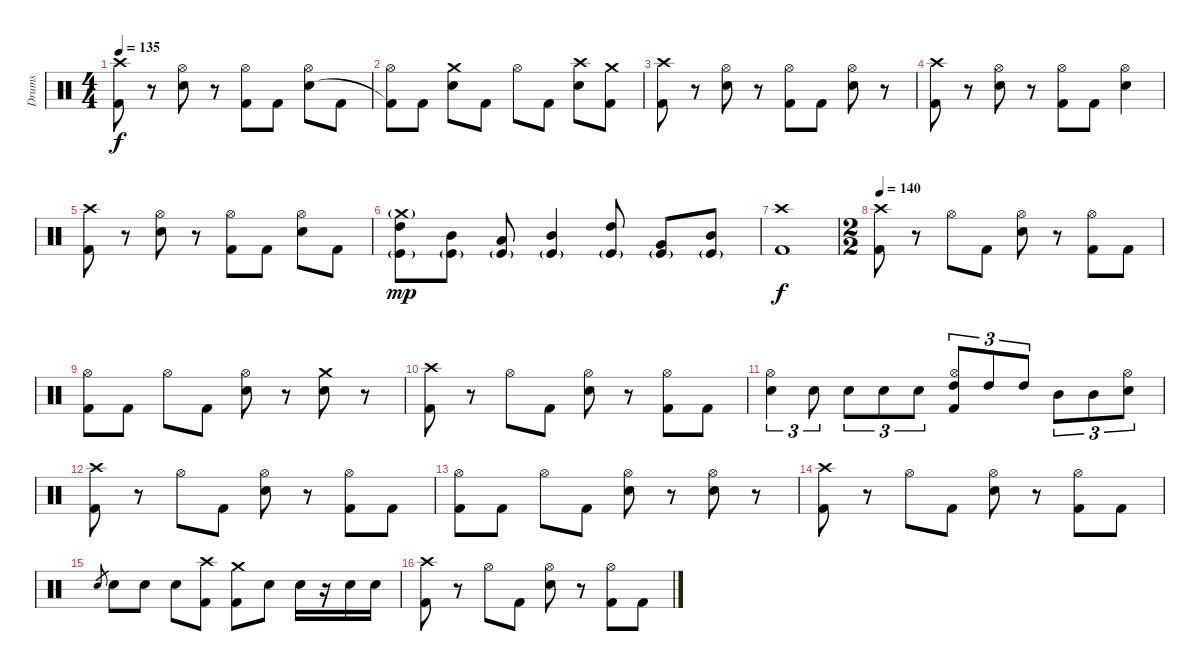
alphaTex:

\track ("Drums" "Drums") {instrument percussion}
\staff {score}
\articulation defaults
\ts (4 4)
\tempo 135
\clef neutral
\ks c
("Crash high (hit)" "Kick (hit) 2").8{dy f} r.8 ("Hi-Hat (open)" "Snare (hit) 2").8 r.8 ("Hi-Hat (open)" "Kick (hit) 2").8 "Kick (hit) 2".8 ("Hi-Hat (open)" "Snare (hit) 2").8 "Kick (hit) 2".8 |
("Hi-Hat (open)" "Kick (hit) 2"{t}).8 "Kick (hit) 2".8 ("Crash medium (hit)" "Snare (hit) 2").8 "Kick (hit) 2".8 "Hi-Hat (open)".8 "Kick (hit) 2".8 ("Crash high (hit)" "Snare (hit) 2").8 ("Crash medium (hit)" "Kick (hit) 2").8 |
("Crash high (hit)" "Kick (hit) 2").8 r.8 ("Hi-Hat (open)" "Snare (hit) 2").8 r.8 ("Hi-Hat (open)" "Kick (hit) 2").8 "Kick (hit) 2".8 ("Hi-Hat (open)" "Snare (hit) 2").8 r.8 |
("Crash high (hit)" "Kick (hit) 2").8 r.8 ("Hi-Hat (open)" "Snare (hit) 2").8 r.8 ("Hi-Hat (open)" "Kick (hit) 2").8 "Kick (hit) 2".8 ("Hi-Hat (open)" "Snare (hit) 2").4 |
("Crash high (hit)" "Kick (hit) 2").8 r.8 ("Hi-Hat (open)" "Snare (hit) 2").8 r.8 ("Hi-Hat (open)" "Kick (hit) 2").8 "Kick (hit) 2".8 ("Hi-Hat (open)" "Snare (hit) 2").8 "Kick (hit) 2".8 |
("Crash medium (hit)"{g} "High Tom (hit)" "Kick (hit)"{g}).8{dy mp} ("Mid Tom (hit)" "Kick (hit)"{g}).8 ("Low Tom (hit)" "Kick (hit)"{g}).8 ("Mid Tom (hit)" "Kick (hit)"{g}).4 ("High Tom (hit)" "Kick (hit)"{g}).8 ("Very Low Tom (hit)" "Kick (hit)"{g}).8 ("Mid Tom (hit)" "Kick (hit)"{g}).8 |
("Crash high (hit)" "Kick (hit) 2").1{dy f} |
\ts (2 2)
\tempo 140
("Crash high (hit)" "Kick (hit) 2").8 r.8 "Hi-Hat (open)".8 "Kick (hit) 2".8 ("Hi-Hat (open)" "Snare (hit) 2").8 r.8 ("Hi-Hat (open)" "Kick (hit) 2").8 "Kick (hit) 2".8 |
("Hi-Hat (open)" "Kick (hit) 2").8 "Kick (hit) 2".8 "Hi-Hat (open)".8 "Kick (hit) 2".8 ("Hi-Hat (open)" "Snare (hit) 2").8 r.8 ("Crash medium (hit)" "Snare (hit) 2").8 r.8 |
("Crash high (hit)" "Kick (hit) 2").8 r.8 "Hi-Hat (open)".8 "Kick (hit) 2".8 ("Hi-Hat (open)" "Snare (hit) 2").8 r.8 ("Hi-Hat (open)" "Kick (hit) 2").8 "Kick (hit) 2".8 |
("Hi-Hat (open)" "Snare (hit) 2").4{tu (3 2)} "Snare (hit) 2".8{tu (3 2)} "Snare (hit) 2".8{tu (3 2)} "Snare (hit) 2".8{tu (3 2)} "Snare (hit) 2".8{tu (3 2)} ("Hi-Hat (open)" "High Tom (hit)" "Kick (hit) 2").8{tu (3 2)} "High Tom (hit)".8{tu (3 2)} "High Tom (hit)".8{tu (3 2)} "Mid Tom (hit)".8{tu (3 2)} "Mid Tom (hit)".8{tu (3 2)} ("Hi-Hat (open)" "Snare (hit) 2").8{tu (3 2)} |
("Crash high (hit)" "Kick (hit) 2").8 r.8 "Hi-Hat (open)".8 "Kick (hit) 2".8 ("Hi-Hat (open)" "Snare (hit) 2").8 r.8 ("Hi-Hat (open)" "Kick (hit) 2").8 "Kick (hit) 2".8 |
("Hi-Hat (open)" "Kick (hit) 2").8 "Kick (hit) 2".8 "Hi-Hat (open)".8 "Kick (hit) 2".8 ("Hi-Hat (open)" "Snare (hit) 2").8 r.8 ("Hi-Hat (open)" "Snare (hit) 2").8 r.8 |
("Crash high (hit)" "Kick (hit) 2").8 r.8 "Hi-Hat (open)".8 "Kick (hit) 2".8 ("Hi-Hat (open)" "Snare (hit) 2").8 r.8 ("Hi-Hat (open)" "Kick (hit) 2").8 "Kick (hit) 2".8 |
"Snare (hit) 2".8{gr} "Snare (hit) 2".8 "Snare (hit) 2".8 "Snare (hit) 2".8 ("Crash high (hit)" "Kick (hit) 2").8 ("Crash medium (hit)" "Kick (hit) 2").8 "Snare (hit) 2".8 "Snare (hit) 2".16 r.16 "Snare (hit) 2".16 "Snare (hit) 2".16 |
("Crash high (hit)" "Kick (hit) 2").8 r.8 "Hi-Hat (open)".8 "Kick (hit) 2".8 ("Hi-Hat (open)" "Snare (hit) 2").8 r.8 ("Hi-Hat (open)" "Kick (hit) 2").8 "Kick (hit) 2".8
